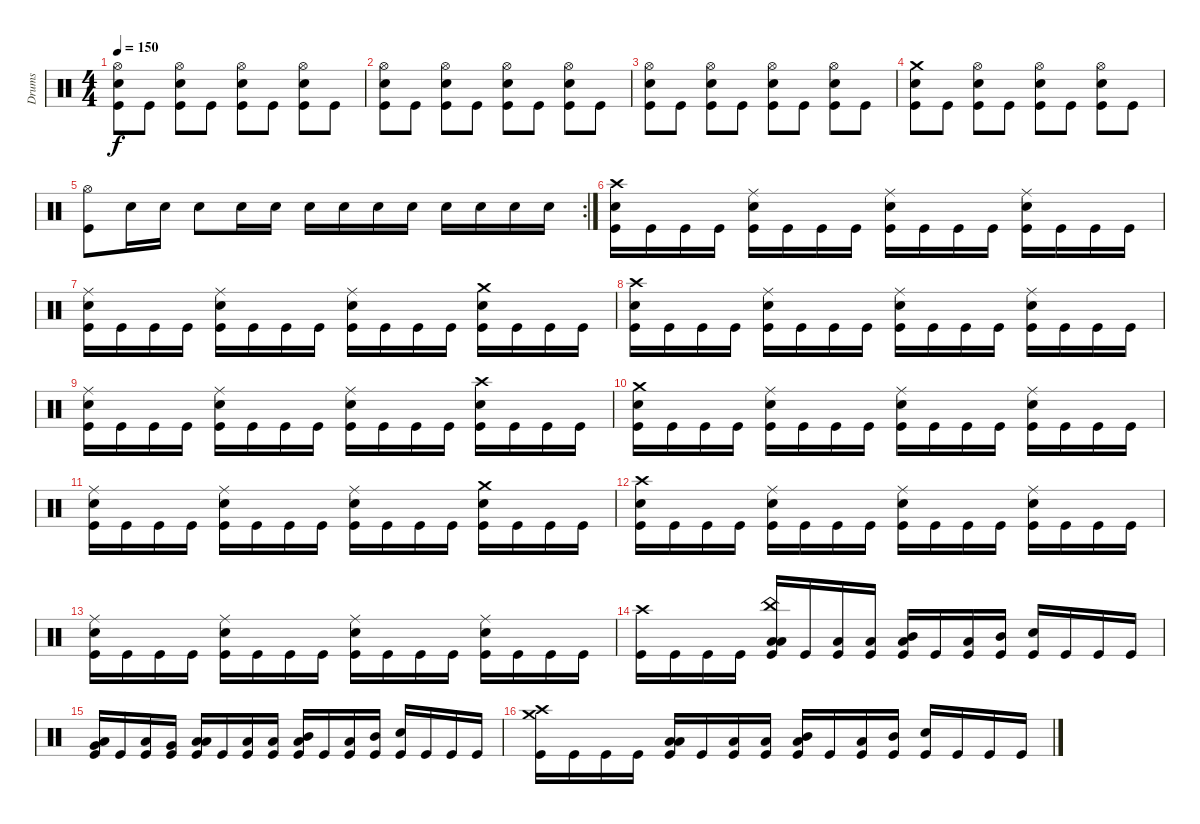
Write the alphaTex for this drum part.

\track ("Drums" "Drums") {instrument percussion}
\staff {score}
\articulation defaults
\ts (4 4)
\tempo 150
\clef neutral
\ks c
("Hi-Hat (open)" "Snare (hit) 2" "Kick (hit)").8{dy f} "Kick (hit)".8 ("Hi-Hat (open)" "Snare (hit) 2" "Kick (hit)").8 "Kick (hit)".8 ("Hi-Hat (open)" "Snare (hit) 2" "Kick (hit)").8 "Kick (hit)".8 ("Hi-Hat (open)" "Snare (hit) 2" "Kick (hit)").8 "Kick (hit)".8 |
("Hi-Hat (open)" "Snare (hit) 2" "Kick (hit)").8 "Kick (hit)".8 ("Hi-Hat (open)" "Snare (hit) 2" "Kick (hit)").8 "Kick (hit)".8 ("Hi-Hat (open)" "Snare (hit) 2" "Kick (hit)").8 "Kick (hit)".8 ("Hi-Hat (open)" "Snare (hit) 2" "Kick (hit)").8 "Kick (hit)".8 |
("Hi-Hat (open)" "Snare (hit) 2" "Kick (hit)").8 "Kick (hit)".8 ("Hi-Hat (open)" "Snare (hit) 2" "Kick (hit)").8 "Kick (hit)".8 ("Hi-Hat (open)" "Snare (hit) 2" "Kick (hit)").8 "Kick (hit)".8 ("Hi-Hat (open)" "Snare (hit) 2" "Kick (hit)").8 "Kick (hit)".8 |
("Crash medium (hit)" "Snare (hit) 2" "Kick (hit)").8 "Kick (hit)".8 ("Hi-Hat (open)" "Snare (hit) 2" "Kick (hit)").8 "Kick (hit)".8 ("Hi-Hat (open)" "Snare (hit) 2" "Kick (hit)").8 "Kick (hit)".8 ("Hi-Hat (open)" "Snare (hit) 2" "Kick (hit)").8 "Kick (hit)".8 |
\rc 2
("Hi-Hat (open)" "Kick (hit)").8 "Snare (hit) 2".16 "Snare (hit) 2".16 "Snare (hit) 2".8 "Snare (hit) 2".16 "Snare (hit) 2".16 "Snare (hit) 2".16 "Snare (hit) 2".16 "Snare (hit) 2".16 "Snare (hit) 2".16 "Snare (hit) 2".16 "Snare (hit) 2".16 "Snare (hit) 2".16 "Snare (hit) 2".16 |
("Crash high (hit)" "Snare (hit) 2" "Kick (hit)").16 "Kick (hit)".16 "Kick (hit)".16 "Kick (hit)".16 ("Ride (middle)" "Snare (hit) 2" "Kick (hit)").16 "Kick (hit)".16 "Kick (hit)".16 "Kick (hit)".16 ("Ride (middle)" "Snare (hit) 2" "Kick (hit)").16 "Kick (hit)".16 "Kick (hit)".16 "Kick (hit)".16 ("Ride (middle)" "Snare (hit) 2" "Kick (hit)").16 "Kick (hit)".16 "Kick (hit)".16 "Kick (hit)".16 |
("Ride (middle)" "Snare (hit) 2" "Kick (hit)").16 "Kick (hit)".16 "Kick (hit)".16 "Kick (hit)".16 ("Ride (middle)" "Snare (hit) 2" "Kick (hit)").16 "Kick (hit)".16 "Kick (hit)".16 "Kick (hit)".16 ("Ride (middle)" "Snare (hit) 2" "Kick (hit)").16 "Kick (hit)".16 "Kick (hit)".16 "Kick (hit)".16 ("Crash medium (hit)" "Snare (hit) 2" "Kick (hit)").16 "Kick (hit)".16 "Kick (hit)".16 "Kick (hit)".16 |
("Crash high (hit)" "Snare (hit) 2" "Kick (hit)").16 "Kick (hit)".16 "Kick (hit)".16 "Kick (hit)".16 ("Ride (middle)" "Snare (hit) 2" "Kick (hit)").16 "Kick (hit)".16 "Kick (hit)".16 "Kick (hit)".16 ("Ride (middle)" "Snare (hit) 2" "Kick (hit)").16 "Kick (hit)".16 "Kick (hit)".16 "Kick (hit)".16 ("Ride (middle)" "Snare (hit) 2" "Kick (hit)").16 "Kick (hit)".16 "Kick (hit)".16 "Kick (hit)".16 |
("Ride (middle)" "Snare (hit) 2" "Kick (hit)").16 "Kick (hit)".16 "Kick (hit)".16 "Kick (hit)".16 ("Ride (middle)" "Snare (hit) 2" "Kick (hit)").16 "Kick (hit)".16 "Kick (hit)".16 "Kick (hit)".16 ("Ride (middle)" "Snare (hit) 2" "Kick (hit)").16 "Kick (hit)".16 "Kick (hit)".16 "Kick (hit)".16 ("Crash high (hit)" "Snare (hit) 2" "Kick (hit)").16 "Kick (hit)".16 "Kick (hit)".16 "Kick (hit)".16 |
("Crash medium (hit)" "Snare (hit) 2" "Kick (hit)").16 "Kick (hit)".16 "Kick (hit)".16 "Kick (hit)".16 ("Ride (middle)" "Snare (hit) 2" "Kick (hit)").16 "Kick (hit)".16 "Kick (hit)".16 "Kick (hit)".16 ("Ride (middle)" "Snare (hit) 2" "Kick (hit)").16 "Kick (hit)".16 "Kick (hit)".16 "Kick (hit)".16 ("Ride (middle)" "Snare (hit) 2" "Kick (hit)").16 "Kick (hit)".16 "Kick (hit)".16 "Kick (hit)".16 |
("Ride (middle)" "Snare (hit) 2" "Kick (hit)").16 "Kick (hit)".16 "Kick (hit)".16 "Kick (hit)".16 ("Ride (middle)" "Snare (hit) 2" "Kick (hit)").16 "Kick (hit)".16 "Kick (hit)".16 "Kick (hit)".16 ("Ride (middle)" "Snare (hit) 2" "Kick (hit)").16 "Kick (hit)".16 "Kick (hit)".16 "Kick (hit)".16 ("Crash medium (hit)" "Snare (hit) 2" "Kick (hit)").16 "Kick (hit)".16 "Kick (hit)".16 "Kick (hit)".16 |
("Crash high (hit)" "Snare (hit) 2" "Kick (hit)").16 "Kick (hit)".16 "Kick (hit)".16 "Kick (hit)".16 ("Ride (middle)" "Snare (hit) 2" "Kick (hit)").16 "Kick (hit)".16 "Kick (hit)".16 "Kick (hit)".16 ("Ride (middle)" "Snare (hit) 2" "Kick (hit)").16 "Kick (hit)".16 "Kick (hit)".16 "Kick (hit)".16 ("Ride (middle)" "Snare (hit) 2" "Kick (hit)").16 "Kick (hit)".16 "Kick (hit)".16 "Kick (hit)".16 |
("Ride (middle)" "Snare (hit) 2" "Kick (hit)").16 "Kick (hit)".16 "Kick (hit)".16 "Kick (hit)".16 ("Ride (middle)" "Snare (hit) 2" "Kick (hit)").16 "Kick (hit)".16 "Kick (hit)".16 "Kick (hit)".16 ("Ride (middle)" "Snare (hit) 2" "Kick (hit)").16 "Kick (hit)".16 "Kick (hit)".16 "Kick (hit)".16 ("Ride (middle)" "Snare (hit) 2" "Kick (hit)").16 "Kick (hit)".16 "Kick (hit)".16 "Kick (hit)".16 |
("Crash high (hit)" "Kick (hit)").16 "Kick (hit)".16 "Kick (hit)".16 "Kick (hit)".16 ("China (hit)" "Low Floor Tom (hit)" "Low Tom (hit)" "Kick (hit)").16 "Kick (hit)".16 ("Low Floor Tom (hit)" "Kick (hit)").16 ("Low Tom (hit)" "Kick (hit)").16 ("Low Tom (hit)" "Mid Tom (hit)" "Kick (hit)").16 "Kick (hit)".16 ("Low Tom (hit)" "Kick (hit)").16 ("Mid Tom (hit)" "Kick (hit)").16 ("Snare (hit) 2" "Kick (hit)").16 "Kick (hit)".16 "Kick (hit)".16 "Kick (hit)".16 |
("Low Floor Tom (hit)" "Very Low Tom (hit)" "Kick (hit)").16 "Kick (hit)".16 ("Low Floor Tom (hit)" "Kick (hit)").16 ("Very Low Tom (hit)" "Kick (hit)").16 ("Low Floor Tom (hit)" "Low Tom (hit)" "Kick (hit)").16 "Kick (hit)".16 ("Low Floor Tom (hit)" "Kick (hit)").16 ("Low Tom (hit)" "Kick (hit)").16 ("Low Tom (hit)" "Mid Tom (hit)" "Kick (hit)").16 "Kick (hit)".16 ("Low Tom (hit)" "Kick (hit)").16 ("Mid Tom (hit)" "Kick (hit)").16 ("Snare (hit) 2" "Kick (hit)").16 "Kick (hit)".16 "Kick (hit)".16 "Kick (hit)".16 |
("Crash medium (hit)" "Crash high (hit)" "Kick (hit)").16 "Kick (hit)".16 "Kick (hit)".16 "Kick (hit)".16 ("Low Floor Tom (hit)" "Low Tom (hit)" "Kick (hit)").16 "Kick (hit)".16 ("Low Floor Tom (hit)" "Kick (hit)").16 ("Low Tom (hit)" "Kick (hit)").16 ("Low Tom (hit)" "Mid Tom (hit)" "Kick (hit)").16 "Kick (hit)".16 ("Low Tom (hit)" "Kick (hit)").16 ("Mid Tom (hit)" "Kick (hit)").16 ("Snare (hit) 2" "Kick (hit)").16 "Kick (hit)".16 "Kick (hit)".16 "Kick (hit)".16
